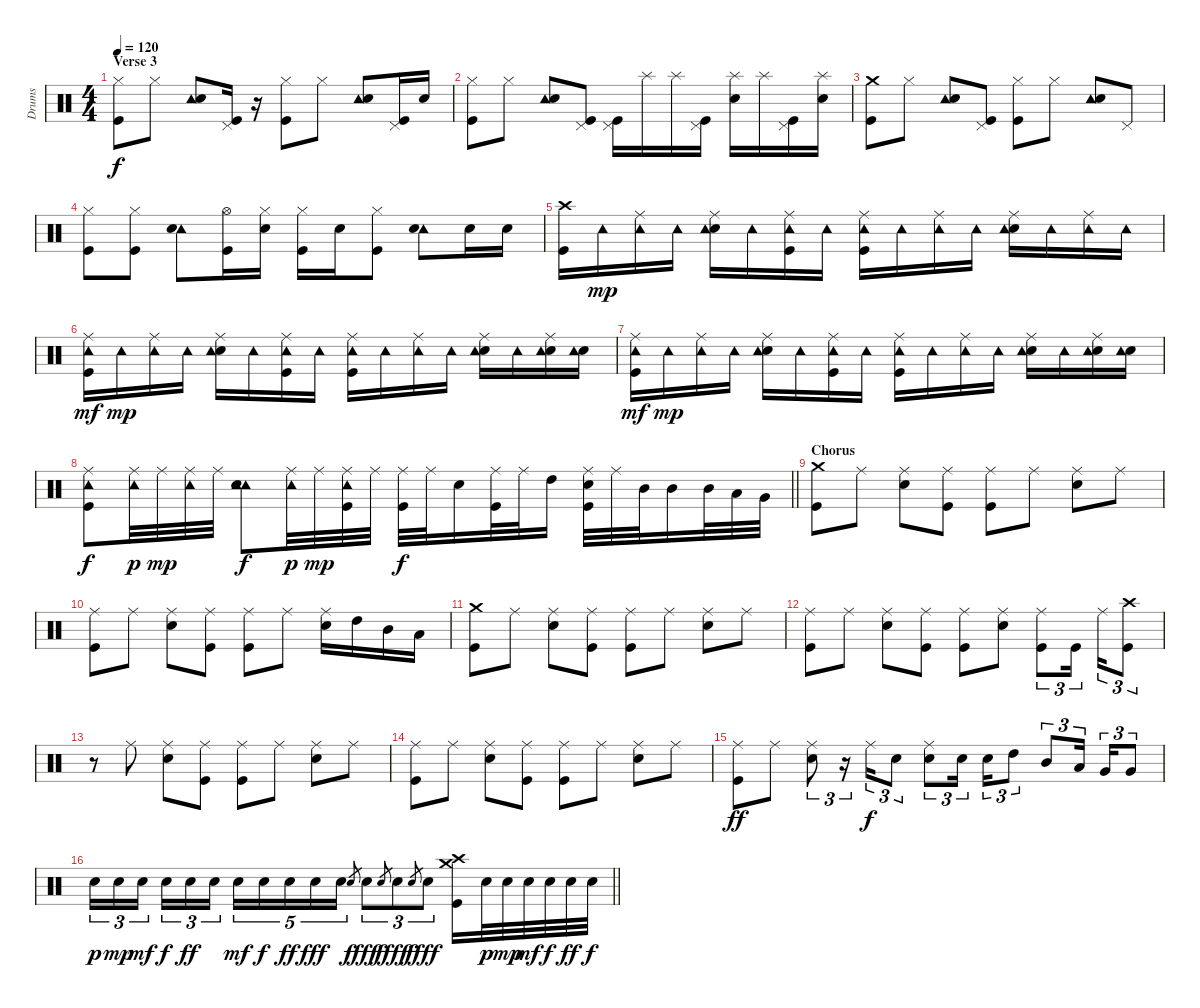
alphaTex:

\track ("Drums" "Drums") {instrument percussion}
\staff {score}
\articulation defaults
\ts (4 4)
\section ("" "Verse 3")
\tempo 120
\clef neutral
\ks c
("Hi-Hat (closed)" "Kick (hit)").8{dy f} "Hi-Hat (closed)".8 ("Tambourine (hit)" "Electric Snare (hit)").8 ("Pedal Hi-Hat (hit)" "Kick (hit)").16 r.16 ("Hi-Hat (closed)" "Kick (hit)").8 "Hi-Hat (closed)".8 ("Tambourine (hit)" "Electric Snare (hit)").8 ("Pedal Hi-Hat (hit)" "Kick (hit)").16 "Electric Snare (hit)".16 |
("Hi-Hat (closed)" "Kick (hit)").8 "Hi-Hat (closed)".8 ("Tambourine (hit)" "Electric Snare (hit)").8 ("Pedal Hi-Hat (hit)" "Kick (hit)").8 ("Pedal Hi-Hat (hit)" "Kick (hit)").16 "Splash (hit)".16 "Splash (hit)".16 ("Pedal Hi-Hat (hit)" "Kick (hit)").16 ("Splash (hit)" "Electric Snare (hit)").16 "Splash (hit)".16 ("Pedal Hi-Hat (hit)" "Kick (hit)").16 ("Splash (hit)" "Electric Snare (hit)").16 |
("Crash medium (hit)" "Kick (hit)").8 "Hi-Hat (closed)".8 ("Tambourine (hit)" "Electric Snare (hit)").8 ("Pedal Hi-Hat (hit)" "Kick (hit)").8 ("Hi-Hat (closed)" "Kick (hit)").8 "Hi-Hat (closed)".8 ("Tambourine (hit)" "Electric Snare (hit)").8 "Pedal Hi-Hat (hit)".8 |
("Hi-Hat (closed)" "Kick (hit)").8 ("Hi-Hat (closed)" "Kick (hit)").8 ("Tambourine (hit)" "Electric Snare (hit)").8 ("Hi-Hat (open)" "Kick (hit)").16 ("Hi-Hat (closed)" "Electric Snare (hit)").16 ("Hi-Hat (closed)" "Kick (hit)").16 "Electric Snare (hit)".16 ("Hi-Hat (closed)" "Kick (hit)").8 ("Tambourine (hit)" "Electric Snare (hit)").8 "Electric Snare (hit)".16 "Electric Snare (hit)".16 |
("Crash high (hit)" "Kick (hit)").16 "Tambourine (hit)".16{dy mp} ("Ride (middle)" "Tambourine (hit)").16 "Tambourine (hit)".16 ("Ride (middle)" "Electric Snare (hit)" "Tambourine (hit)").16 "Tambourine (hit)".16 ("Ride (middle)" "Tambourine (hit)" "Kick (hit)").16 "Tambourine (hit)".16 ("Ride (middle)" "Tambourine (hit)" "Kick (hit)").16 "Tambourine (hit)".16 ("Ride (middle)" "Tambourine (hit)").16 "Tambourine (hit)".16 ("Ride (middle)" "Electric Snare (hit)" "Tambourine (hit)").16 "Tambourine (hit)".16 ("Ride (middle)" "Tambourine (hit)").16 "Tambourine (hit)".16 |
("Ride (middle)" "Tambourine (hit)" "Kick (hit)").16{dy mf} "Tambourine (hit)".16{dy mp} ("Ride (middle)" "Tambourine (hit)").16 "Tambourine (hit)".16 ("Ride (middle)" "Electric Snare (hit)" "Tambourine (hit)").16 "Tambourine (hit)".16 ("Ride (middle)" "Tambourine (hit)" "Kick (hit)").16 "Tambourine (hit)".16 ("Ride (middle)" "Tambourine (hit)" "Kick (hit)").16 "Tambourine (hit)".16 ("Ride (middle)" "Tambourine (hit)").16 "Tambourine (hit)".16 ("Ride (middle)" "Electric Snare (hit)" "Tambourine (hit)").16 "Tambourine (hit)".16 ("Ride (middle)" "Electric Snare (hit)" "Tambourine (hit)").16 ("Electric Snare (hit)" "Tambourine (hit)").16 |
("Ride (middle)" "Tambourine (hit)" "Kick (hit)").16{dy mf} "Tambourine (hit)".16{dy mp} ("Ride (middle)" "Tambourine (hit)").16 "Tambourine (hit)".16 ("Ride (middle)" "Electric Snare (hit)" "Tambourine (hit)").16 "Tambourine (hit)".16 ("Ride (middle)" "Tambourine (hit)" "Kick (hit)").16 "Tambourine (hit)".16 ("Ride (middle)" "Tambourine (hit)" "Kick (hit)").16 "Tambourine (hit)".16 ("Ride (middle)" "Tambourine (hit)").16 "Tambourine (hit)".16 ("Ride (middle)" "Electric Snare (hit)" "Tambourine (hit)").16 "Tambourine (hit)".16 ("Ride (middle)" "Electric Snare (hit)" "Tambourine (hit)").16 ("Electric Snare (hit)" "Tambourine (hit)").16 |
\barLineRight lightlight
("Ride (middle)" "Tambourine (hit)" "Kick (hit)").8{dy f} ("Ride (middle)" "Tambourine (hit)").32{dy p} "Ride (middle)".32{dy mp} ("Ride (middle)" "Tambourine (hit)").32 "Ride (middle)".32 ("Tambourine (hit)" "Electric Snare (hit)" "Tambourine (hit)").8{dy f} ("Ride (middle)" "Tambourine (hit)").32{dy p} "Ride (middle)".32{dy mp} ("Ride (middle)" "Tambourine (hit)" "Kick (hit)").32 "Ride (middle)".32 ("Ride (middle)" "Kick (hit)").32{dy f} "Ride (middle)".32 "Electric Snare (hit)".16 ("Ride (middle)" "Kick (hit)").32 "Ride (middle)".32 "High Tom (hit)".16 ("Ride (middle)" "Electric Snare (hit)" "Kick (hit)").32 "Ride (middle)".32 "Mid Tom (hit)".32 "Mid Tom (hit)".16 "Mid Tom (hit)".32 "Low Tom (hit)".32 "Very Low Tom (hit)".32 |
\section ("" "Chorus")
("Crash medium (hit)" "Kick (hit)").8 "Ride (middle)".8 ("Ride (middle)" "Electric Snare (hit)").8 ("Ride (middle)" "Kick (hit)").8 ("Ride (middle)" "Kick (hit)").8 "Ride (middle)".8 ("Ride (middle)" "Electric Snare (hit)").8 "Ride (middle)".8 |
("Ride (middle)" "Kick (hit)").8 "Ride (middle)".8 ("Ride (middle)" "Electric Snare (hit)").8 ("Ride (middle)" "Kick (hit)").8 ("Ride (middle)" "Kick (hit)").8 "Ride (middle)".8 ("Ride (middle)" "Electric Snare (hit)").16 "High Tom (hit)".16 "Mid Tom (hit)".16 "Low Tom (hit)".16 |
("Crash medium (hit)" "Kick (hit)").8 "Ride (middle)".8 ("Ride (middle)" "Electric Snare (hit)").8 ("Ride (middle)" "Kick (hit)").8 ("Ride (middle)" "Kick (hit)").8 "Ride (middle)".8 ("Ride (middle)" "Electric Snare (hit)").8 "Ride (middle)".8 |
("Ride (middle)" "Kick (hit)").8 "Ride (middle)".8 ("Ride (middle)" "Electric Snare (hit)").8 ("Ride (middle)" "Kick (hit)").8 ("Ride (middle)" "Kick (hit)").8 ("Ride (middle)" "Electric Snare (hit)").8 ("Ride (middle)" "Kick (hit)").8{tu (3 2)} "Kick (hit)".16{tu (3 2)} "Ride (middle)".16{tu (3 2)} ("Crash high (hit)" "Kick (hit)").8{tu (3 2)} |
r.8 "Ride (middle)".8 ("Ride (middle)" "Electric Snare (hit)").8 ("Ride (middle)" "Kick (hit)").8 ("Ride (middle)" "Kick (hit)").8 "Ride (middle)".8 ("Ride (middle)" "Electric Snare (hit)").8 "Ride (middle)".8 |
("Ride (middle)" "Kick (hit)").8 "Ride (middle)".8 ("Ride (middle)" "Electric Snare (hit)").8 ("Ride (middle)" "Kick (hit)").8 ("Ride (middle)" "Kick (hit)").8 "Ride (middle)".8 ("Ride (middle)" "Electric Snare (hit)").8 "Ride (middle)".8 |
("Ride (middle)" "Kick (hit)").8{dy ff} "Ride (middle)".8 ("Ride (middle)" "Electric Snare (hit)").8{tu (3 2)} r.16{tu (3 2)} "Ride (middle)".16{tu (3 2) dy f} "Electric Snare (hit)".8{tu (3 2)} ("Ride (middle)" "Electric Snare (hit)").8{tu (3 2)} "Electric Snare (hit)".16{tu (3 2)} "Electric Snare (hit)".16{tu (3 2)} "High Tom (hit)".8{tu (3 2)} "Mid Tom (hit)".8{tu (3 2)} "Low Tom (hit)".16{tu (3 2)} "Very Low Tom (hit)".16{tu (3 2)} "Very Low Tom (hit)".8{tu (3 2)} |
\barLineRight lightlight "Electric Snare (hit)".16{tu (3 2) dy p} "Electric Snare (hit)".16{tu (3 2) dy mp} "Electric Snare (hit)".16{tu (3 2) dy mf} "Electric Snare (hit)".16{tu (3 2) dy f} "Electric Snare (hit)".16{tu (3 2) dy ff} "Electric Snare (hit)".16{tu (3 2)} "Electric Snare (hit)".16{tu (5 4) dy mf} "Electric Snare (hit)".16{tu (5 4) dy f} "Electric Snare (hit)".16{tu (5 4) dy ff} "Electric Snare (hit)".16{tu (5 4) dy fff} "Electric Snare (hit)".16{tu (5 4)} "Electric Snare (hit)".8{gr dy f} "Electric Snare (hit)".8{tu (3 2) dy fff} "Electric Snare (hit)".8{gr dy f} "Electric Snare (hit)".8{tu (3 2) dy fff} "Electric Snare (hit)".8{gr dy f} "Electric Snare (hit)".8{tu (3 2) dy fff}
("Crash high (hit)" "Crash medium (hit)" "Kick (hit)").16 "Electric Snare (hit)".32{dy p} "Electric Snare (hit)".32{dy mp} "Electric Snare (hit)".32{dy mf} "Electric Snare (hit)".32{dy f} "Electric Snare (hit)".32{dy ff} "Electric Snare (hit)".32{dy f}
